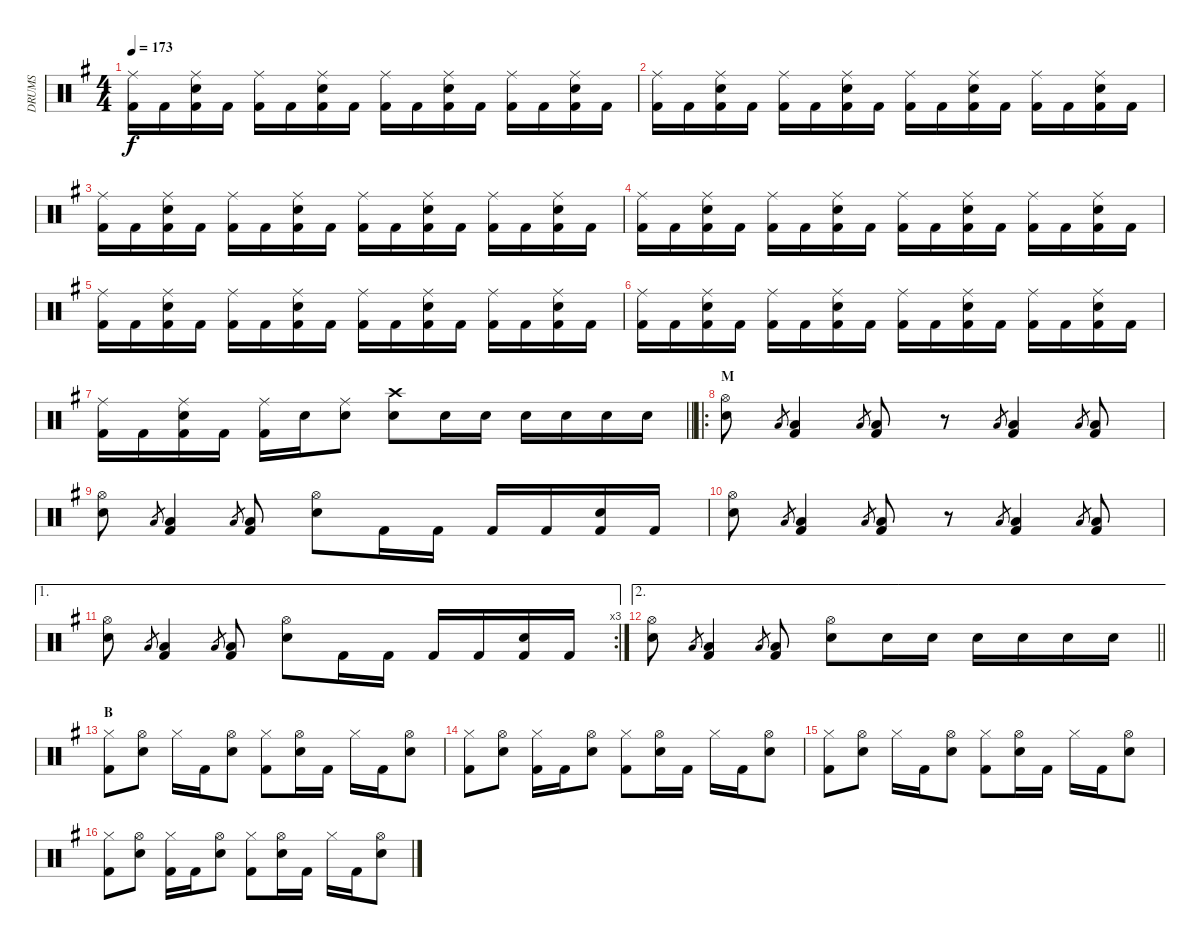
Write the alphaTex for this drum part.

\track ("DRUMS" "DRUMS") {instrument percussion}
\staff {score}
\articulation defaults
\ts (4 4)
\tempo 173
\clef neutral
\ks g
("Ride (middle)" "Kick (hit) 2").16{dy f} "Kick (hit) 2".16 ("Ride (middle)" "Snare (hit) 2" "Kick (hit) 2").16 "Kick (hit) 2".16 ("Ride (middle)" "Kick (hit) 2").16 "Kick (hit) 2".16 ("Ride (middle)" "Snare (hit) 2" "Kick (hit) 2").16 "Kick (hit) 2".16 ("Ride (middle)" "Kick (hit) 2").16 "Kick (hit) 2".16 ("Ride (middle)" "Snare (hit) 2" "Kick (hit) 2").16 "Kick (hit) 2".16 ("Ride (middle)" "Kick (hit) 2").16 "Kick (hit) 2".16 ("Ride (middle)" "Snare (hit) 2" "Kick (hit) 2").16 "Kick (hit) 2".16 |
("Ride (middle)" "Kick (hit) 2").16 "Kick (hit) 2".16 ("Ride (middle)" "Snare (hit) 2" "Kick (hit) 2").16 "Kick (hit) 2".16 ("Ride (middle)" "Kick (hit) 2").16 "Kick (hit) 2".16 ("Ride (middle)" "Snare (hit) 2" "Kick (hit) 2").16 "Kick (hit) 2".16 ("Ride (middle)" "Kick (hit) 2").16 "Kick (hit) 2".16 ("Ride (middle)" "Snare (hit) 2" "Kick (hit) 2").16 "Kick (hit) 2".16 ("Ride (middle)" "Kick (hit) 2").16 "Kick (hit) 2".16 ("Ride (middle)" "Snare (hit) 2" "Kick (hit) 2").16 "Kick (hit) 2".16 |
("Ride (middle)" "Kick (hit) 2").16 "Kick (hit) 2".16 ("Ride (middle)" "Snare (hit) 2" "Kick (hit) 2").16 "Kick (hit) 2".16 ("Ride (middle)" "Kick (hit) 2").16 "Kick (hit) 2".16 ("Ride (middle)" "Snare (hit) 2" "Kick (hit) 2").16 "Kick (hit) 2".16 ("Ride (middle)" "Kick (hit) 2").16 "Kick (hit) 2".16 ("Ride (middle)" "Snare (hit) 2" "Kick (hit) 2").16 "Kick (hit) 2".16 ("Ride (middle)" "Kick (hit) 2").16 "Kick (hit) 2".16 ("Ride (middle)" "Snare (hit) 2" "Kick (hit) 2").16 "Kick (hit) 2".16 |
("Ride (middle)" "Kick (hit) 2").16 "Kick (hit) 2".16 ("Ride (middle)" "Snare (hit) 2" "Kick (hit) 2").16 "Kick (hit) 2".16 ("Ride (middle)" "Kick (hit) 2").16 "Kick (hit) 2".16 ("Ride (middle)" "Snare (hit) 2" "Kick (hit) 2").16 "Kick (hit) 2".16 ("Ride (middle)" "Kick (hit) 2").16 "Kick (hit) 2".16 ("Ride (middle)" "Snare (hit) 2" "Kick (hit) 2").16 "Kick (hit) 2".16 ("Ride (middle)" "Kick (hit) 2").16 "Kick (hit) 2".16 ("Ride (middle)" "Snare (hit) 2" "Kick (hit) 2").16 "Kick (hit) 2".16 |
("Ride (middle)" "Kick (hit) 2").16 "Kick (hit) 2".16 ("Ride (middle)" "Snare (hit) 2" "Kick (hit) 2").16 "Kick (hit) 2".16 ("Ride (middle)" "Kick (hit) 2").16 "Kick (hit) 2".16 ("Ride (middle)" "Snare (hit) 2" "Kick (hit) 2").16 "Kick (hit) 2".16 ("Ride (middle)" "Kick (hit) 2").16 "Kick (hit) 2".16 ("Ride (middle)" "Snare (hit) 2" "Kick (hit) 2").16 "Kick (hit) 2".16 ("Ride (middle)" "Kick (hit) 2").16 "Kick (hit) 2".16 ("Ride (middle)" "Snare (hit) 2" "Kick (hit) 2").16 "Kick (hit) 2".16 |
("Ride (middle)" "Kick (hit) 2").16 "Kick (hit) 2".16 ("Ride (middle)" "Snare (hit) 2" "Kick (hit) 2").16 "Kick (hit) 2".16 ("Ride (middle)" "Kick (hit) 2").16 "Kick (hit) 2".16 ("Ride (middle)" "Snare (hit) 2" "Kick (hit) 2").16 "Kick (hit) 2".16 ("Ride (middle)" "Kick (hit) 2").16 "Kick (hit) 2".16 ("Ride (middle)" "Snare (hit) 2" "Kick (hit) 2").16 "Kick (hit) 2".16 ("Ride (middle)" "Kick (hit) 2").16 "Kick (hit) 2".16 ("Ride (middle)" "Snare (hit) 2" "Kick (hit) 2").16 "Kick (hit) 2".16 |
\barLineRight lightlight
("Ride (middle)" "Kick (hit) 2").16 "Kick (hit) 2".16 ("Ride (middle)" "Kick (hit) 2" "Snare (hit) 2").16 "Kick (hit) 2".16 ("Ride (middle)" "Kick (hit) 2").16 "Snare (hit) 2".16 ("Ride (middle)" "Snare (hit) 2").8 ("Crash high (hit)" "Snare (hit) 2").8 "Snare (hit) 2".16 "Snare (hit) 2".16 "Snare (hit) 2".16 "Snare (hit) 2".16 "Snare (hit) 2".16 "Snare (hit) 2".16 |
\ro
\section ("" "M")
("Hi-Hat (open)" "Snare (hit) 2").8 "Low Floor Tom (hit)".8{gr} ("Low Floor Tom (hit)" "Kick (hit) 2").4 "Low Floor Tom (hit)".8{gr} ("Low Floor Tom (hit)" "Kick (hit) 2").8 r.8 "Low Floor Tom (hit)".8{gr} ("Low Floor Tom (hit)" "Kick (hit) 2").4 "Low Floor Tom (hit)".8{gr} ("Low Floor Tom (hit)" "Kick (hit) 2").8 |
("Hi-Hat (open)" "Snare (hit) 2").8 "Low Floor Tom (hit)".8{gr} ("Low Floor Tom (hit)" "Kick (hit) 2").4 "Low Floor Tom (hit)".8{gr} ("Low Floor Tom (hit)" "Kick (hit) 2").8 ("Hi-Hat (open)" "Snare (hit) 2").8 "Kick (hit) 2".16 "Kick (hit) 2".16 "Kick (hit) 2".16 "Kick (hit) 2".16 ("Snare (hit) 2" "Kick (hit) 2").16 "Kick (hit) 2".16 |
("Hi-Hat (open)" "Snare (hit) 2").8 "Low Floor Tom (hit)".8{gr} ("Low Floor Tom (hit)" "Kick (hit) 2").4 "Low Floor Tom (hit)".8{gr} ("Low Floor Tom (hit)" "Kick (hit) 2").8 r.8 "Low Floor Tom (hit)".8{gr} ("Low Floor Tom (hit)" "Kick (hit) 2").4 "Low Floor Tom (hit)".8{gr} ("Low Floor Tom (hit)" "Kick (hit) 2").8 |
\ae 1
\rc 3
("Hi-Hat (open)" "Snare (hit) 2").8 "Low Floor Tom (hit)".8{gr} ("Low Floor Tom (hit)" "Kick (hit) 2").4 "Low Floor Tom (hit)".8{gr} ("Low Floor Tom (hit)" "Kick (hit) 2").8 ("Hi-Hat (open)" "Snare (hit) 2").8 "Kick (hit) 2".16 "Kick (hit) 2".16 "Kick (hit) 2".16 "Kick (hit) 2".16 ("Snare (hit) 2" "Kick (hit) 2").16 "Kick (hit) 2".16 |
\ae 2
\barLineRight lightlight
("Hi-Hat (open)" "Snare (hit) 2").8 "Low Floor Tom (hit)".8{gr} ("Low Floor Tom (hit)" "Kick (hit) 2").4 "Low Floor Tom (hit)".8{gr} ("Low Floor Tom (hit)" "Kick (hit) 2").8 ("Hi-Hat (open)" "Snare (hit) 2").8 "Snare (hit) 2".16 "Snare (hit) 2".16 "Snare (hit) 2".16 "Snare (hit) 2".16 "Snare (hit) 2".16 "Snare (hit) 2".16 |
\section ("" "B")
("Hi-Hat (closed)" "Kick (hit) 2").8 ("Hi-Hat (open)" "Snare (hit) 2").8 "Hi-Hat (closed)".16 "Kick (hit) 2".16 ("Hi-Hat (open)" "Snare (hit) 2").8 ("Hi-Hat (closed)" "Kick (hit) 2").8 ("Hi-Hat (open)" "Snare (hit) 2").16 "Kick (hit) 2".16 "Hi-Hat (closed)".16 "Kick (hit) 2".16 ("Hi-Hat (open)" "Snare (hit) 2").8 |
("Hi-Hat (closed)" "Kick (hit) 2").8 ("Hi-Hat (open)" "Snare (hit) 2").8 ("Hi-Hat (closed)" "Kick (hit) 2").16 "Kick (hit) 2".16 ("Hi-Hat (open)" "Snare (hit) 2").8 ("Hi-Hat (closed)" "Kick (hit) 2").8 ("Hi-Hat (open)" "Snare (hit) 2").16 "Kick (hit) 2".16 "Hi-Hat (closed)".16 "Kick (hit) 2".16 ("Hi-Hat (open)" "Snare (hit) 2").8 |
("Hi-Hat (closed)" "Kick (hit) 2").8 ("Hi-Hat (open)" "Snare (hit) 2").8 "Hi-Hat (closed)".16 "Kick (hit) 2".16 ("Hi-Hat (open)" "Snare (hit) 2").8 ("Hi-Hat (closed)" "Kick (hit) 2").8 ("Hi-Hat (open)" "Snare (hit) 2").16 "Kick (hit) 2".16 "Hi-Hat (closed)".16 "Kick (hit) 2".16 ("Hi-Hat (open)" "Snare (hit) 2").8 |
("Hi-Hat (closed)" "Kick (hit) 2").8 ("Hi-Hat (open)" "Snare (hit) 2").8 ("Hi-Hat (closed)" "Kick (hit) 2").16 "Kick (hit) 2".16 ("Hi-Hat (open)" "Snare (hit) 2").8 ("Hi-Hat (closed)" "Kick (hit) 2").8 ("Hi-Hat (open)" "Snare (hit) 2").16 "Kick (hit) 2".16 "Hi-Hat (closed)".16 "Kick (hit) 2".16 ("Hi-Hat (open)" "Snare (hit) 2").8
